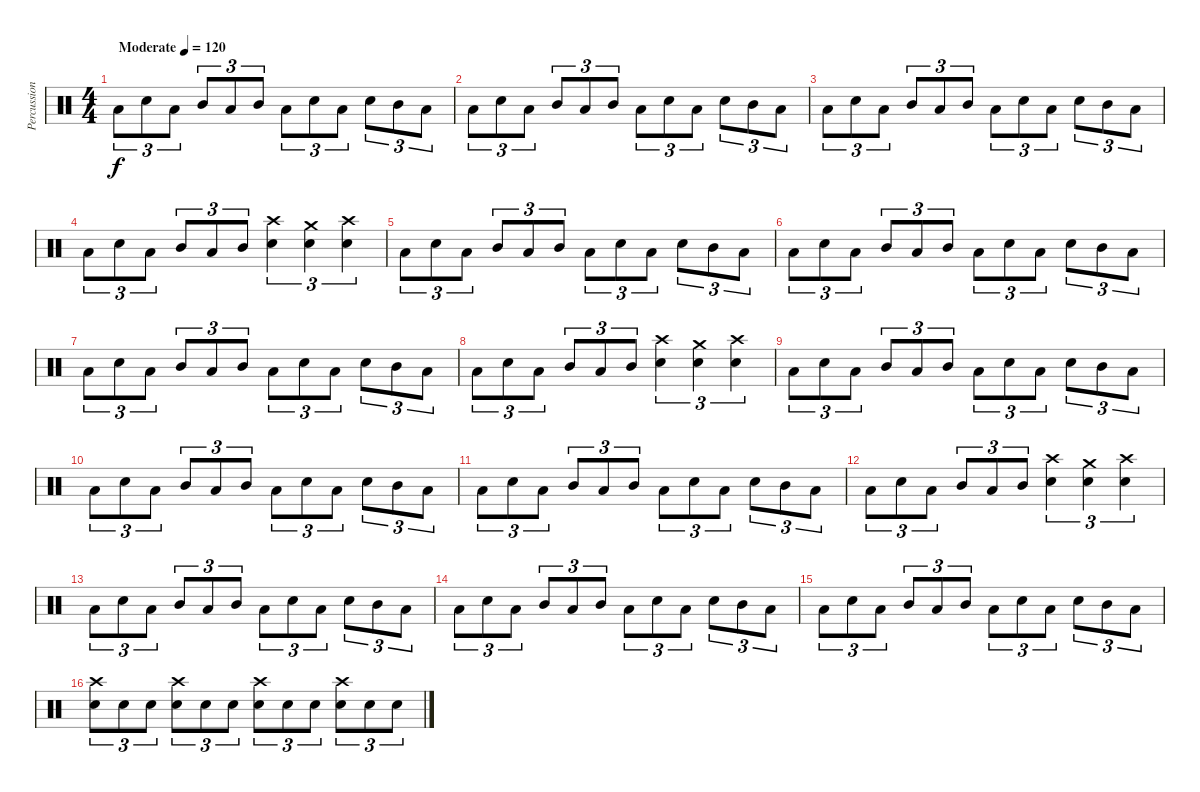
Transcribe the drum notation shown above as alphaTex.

\track ("Percussion" "Percussion") {instrument percussion}
\staff {score}
\articulation defaults
\ts (4 4)
\tempo (120 "Moderate")
\clef neutral
\ks c "Low Floor Tom (hit)".8{tu (3 2) dy f} "Snare (hit) 2".8{tu (3 2)} "Low Floor Tom (hit)".8{tu (3 2)} "Mid Tom (hit)".8{tu (3 2)} "Low Tom (hit)".8{tu (3 2)} "Mid Tom (hit)".8{tu (3 2)} "Low Floor Tom (hit)".8{tu (3 2)} "Snare (hit) 2".8{tu (3 2)} "Low Floor Tom (hit)".8{tu (3 2)} "Snare (hit) 2".8{tu (3 2)} "Mid Tom (hit)".8{tu (3 2)} "Low Tom (hit)".8{tu (3 2)}
|
"Low Floor Tom (hit)".8{tu (3 2)} "Snare (hit) 2".8{tu (3 2)} "Low Floor Tom (hit)".8{tu (3 2)} "Mid Tom (hit)".8{tu (3 2)} "Low Tom (hit)".8{tu (3 2)} "Mid Tom (hit)".8{tu (3 2)} "Low Floor Tom (hit)".8{tu (3 2)} "Snare (hit) 2".8{tu (3 2)} "Low Floor Tom (hit)".8{tu (3 2)} "Snare (hit) 2".8{tu (3 2)} "Mid Tom (hit)".8{tu (3 2)} "Low Tom (hit)".8{tu (3 2)} |
"Low Floor Tom (hit)".8{tu (3 2)} "Snare (hit) 2".8{tu (3 2)} "Low Floor Tom (hit)".8{tu (3 2)} "Mid Tom (hit)".8{tu (3 2)} "Low Tom (hit)".8{tu (3 2)} "Mid Tom (hit)".8{tu (3 2)} "Low Floor Tom (hit)".8{tu (3 2)} "Snare (hit) 2".8{tu (3 2)} "Low Floor Tom (hit)".8{tu (3 2)} "Snare (hit) 2".8{tu (3 2)} "Mid Tom (hit)".8{tu (3 2)} "Low Tom (hit)".8{tu (3 2)} |
"Low Floor Tom (hit)".8{tu (3 2)} "Snare (hit) 2".8{tu (3 2)} "Low Floor Tom (hit)".8{tu (3 2)} "Mid Tom (hit)".8{tu (3 2)} "Low Tom (hit)".8{tu (3 2)} "Mid Tom (hit)".8{tu (3 2)} ("Crash high (hit)" "Snare (hit) 2").4{tu (3 2)} ("Crash medium (hit)" "Snare (hit) 2").4{tu (3 2)} ("Crash high (hit)" "Snare (hit) 2").4{tu (3 2)} |
"Low Floor Tom (hit)".8{tu (3 2)} "Snare (hit) 2".8{tu (3 2)} "Low Floor Tom (hit)".8{tu (3 2)} "Mid Tom (hit)".8{tu (3 2)} "Low Tom (hit)".8{tu (3 2)} "Mid Tom (hit)".8{tu (3 2)} "Low Floor Tom (hit)".8{tu (3 2)} "Snare (hit) 2".8{tu (3 2)} "Low Floor Tom (hit)".8{tu (3 2)} "Snare (hit) 2".8{tu (3 2)} "Mid Tom (hit)".8{tu (3 2)} "Low Tom (hit)".8{tu (3 2)} |
"Low Floor Tom (hit)".8{tu (3 2)} "Snare (hit) 2".8{tu (3 2)} "Low Floor Tom (hit)".8{tu (3 2)} "Mid Tom (hit)".8{tu (3 2)} "Low Tom (hit)".8{tu (3 2)} "Mid Tom (hit)".8{tu (3 2)} "Low Floor Tom (hit)".8{tu (3 2)} "Snare (hit) 2".8{tu (3 2)} "Low Floor Tom (hit)".8{tu (3 2)} "Snare (hit) 2".8{tu (3 2)} "Mid Tom (hit)".8{tu (3 2)} "Low Tom (hit)".8{tu (3 2)} |
"Low Floor Tom (hit)".8{tu (3 2)} "Snare (hit) 2".8{tu (3 2)} "Low Floor Tom (hit)".8{tu (3 2)} "Mid Tom (hit)".8{tu (3 2)} "Low Tom (hit)".8{tu (3 2)} "Mid Tom (hit)".8{tu (3 2)} "Low Floor Tom (hit)".8{tu (3 2)} "Snare (hit) 2".8{tu (3 2)} "Low Floor Tom (hit)".8{tu (3 2)} "Snare (hit) 2".8{tu (3 2)} "Mid Tom (hit)".8{tu (3 2)} "Low Tom (hit)".8{tu (3 2)} |
"Low Floor Tom (hit)".8{tu (3 2)} "Snare (hit) 2".8{tu (3 2)} "Low Floor Tom (hit)".8{tu (3 2)} "Mid Tom (hit)".8{tu (3 2)} "Low Tom (hit)".8{tu (3 2)} "Mid Tom (hit)".8{tu (3 2)} ("Crash high (hit)" "Snare (hit) 2").4{tu (3 2)} ("Crash medium (hit)" "Snare (hit) 2").4{tu (3 2)} ("Crash high (hit)" "Snare (hit) 2").4{tu (3 2)} |
"Low Floor Tom (hit)".8{tu (3 2)} "Snare (hit) 2".8{tu (3 2)} "Low Floor Tom (hit)".8{tu (3 2)} "Mid Tom (hit)".8{tu (3 2)} "Low Tom (hit)".8{tu (3 2)} "Mid Tom (hit)".8{tu (3 2)} "Low Floor Tom (hit)".8{tu (3 2)} "Snare (hit) 2".8{tu (3 2)} "Low Floor Tom (hit)".8{tu (3 2)} "Snare (hit) 2".8{tu (3 2)} "Mid Tom (hit)".8{tu (3 2)} "Low Tom (hit)".8{tu (3 2)} |
"Low Floor Tom (hit)".8{tu (3 2)} "Snare (hit) 2".8{tu (3 2)} "Low Floor Tom (hit)".8{tu (3 2)} "Mid Tom (hit)".8{tu (3 2)} "Low Tom (hit)".8{tu (3 2)} "Mid Tom (hit)".8{tu (3 2)} "Low Floor Tom (hit)".8{tu (3 2)} "Snare (hit) 2".8{tu (3 2)} "Low Floor Tom (hit)".8{tu (3 2)} "Snare (hit) 2".8{tu (3 2)} "Mid Tom (hit)".8{tu (3 2)} "Low Tom (hit)".8{tu (3 2)} |
"Low Floor Tom (hit)".8{tu (3 2)} "Snare (hit) 2".8{tu (3 2)} "Low Floor Tom (hit)".8{tu (3 2)} "Mid Tom (hit)".8{tu (3 2)} "Low Tom (hit)".8{tu (3 2)} "Mid Tom (hit)".8{tu (3 2)} "Low Floor Tom (hit)".8{tu (3 2)} "Snare (hit) 2".8{tu (3 2)} "Low Floor Tom (hit)".8{tu (3 2)} "Snare (hit) 2".8{tu (3 2)} "Mid Tom (hit)".8{tu (3 2)} "Low Tom (hit)".8{tu (3 2)} |
"Low Floor Tom (hit)".8{tu (3 2)} "Snare (hit) 2".8{tu (3 2)} "Low Floor Tom (hit)".8{tu (3 2)} "Mid Tom (hit)".8{tu (3 2)} "Low Tom (hit)".8{tu (3 2)} "Mid Tom (hit)".8{tu (3 2)} ("Crash high (hit)" "Snare (hit) 2").4{tu (3 2)} ("Crash medium (hit)" "Snare (hit) 2").4{tu (3 2)} ("Crash high (hit)" "Snare (hit) 2").4{tu (3 2)} |
"Low Floor Tom (hit)".8{tu (3 2)} "Snare (hit) 2".8{tu (3 2)} "Low Floor Tom (hit)".8{tu (3 2)} "Mid Tom (hit)".8{tu (3 2)} "Low Tom (hit)".8{tu (3 2)} "Mid Tom (hit)".8{tu (3 2)} "Low Floor Tom (hit)".8{tu (3 2)} "Snare (hit) 2".8{tu (3 2)} "Low Floor Tom (hit)".8{tu (3 2)} "Snare (hit) 2".8{tu (3 2)} "Mid Tom (hit)".8{tu (3 2)} "Low Tom (hit)".8{tu (3 2)} |
"Low Floor Tom (hit)".8{tu (3 2)} "Snare (hit) 2".8{tu (3 2)} "Low Floor Tom (hit)".8{tu (3 2)} "Mid Tom (hit)".8{tu (3 2)} "Low Tom (hit)".8{tu (3 2)} "Mid Tom (hit)".8{tu (3 2)} "Low Floor Tom (hit)".8{tu (3 2)} "Snare (hit) 2".8{tu (3 2)} "Low Floor Tom (hit)".8{tu (3 2)} "Snare (hit) 2".8{tu (3 2)} "Mid Tom (hit)".8{tu (3 2)} "Low Tom (hit)".8{tu (3 2)} |
"Low Floor Tom (hit)".8{tu (3 2)} "Snare (hit) 2".8{tu (3 2)} "Low Floor Tom (hit)".8{tu (3 2)} "Mid Tom (hit)".8{tu (3 2)} "Low Tom (hit)".8{tu (3 2)} "Mid Tom (hit)".8{tu (3 2)} "Low Floor Tom (hit)".8{tu (3 2)} "Snare (hit) 2".8{tu (3 2)} "Low Floor Tom (hit)".8{tu (3 2)} "Snare (hit) 2".8{tu (3 2)} "Mid Tom (hit)".8{tu (3 2)} "Low Tom (hit)".8{tu (3 2)} |
("Crash high (hit)" "Snare (hit) 2").8{tu (3 2)} "Snare (hit) 2".8{tu (3 2)} "Snare (hit) 2".8{tu (3 2)} ("Crash high (hit)" "Snare (hit) 2").8{tu (3 2)} "Snare (hit) 2".8{tu (3 2)} "Snare (hit) 2".8{tu (3 2)} ("Crash high (hit)" "Snare (hit) 2").8{tu (3 2)} "Snare (hit) 2".8{tu (3 2)} "Snare (hit) 2".8{tu (3 2)} ("Crash high (hit)" "Snare (hit) 2").8{tu (3 2)} "Snare (hit) 2".8{tu (3 2)} "Snare (hit) 2".8{tu (3 2)}
